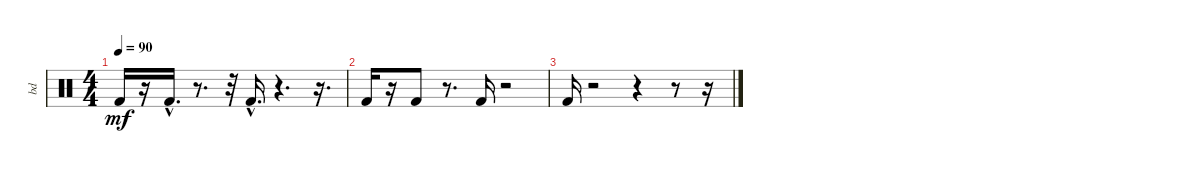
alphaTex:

\track ("bd" "bd") {instrument percussion}
\staff {score}
\articulation defaults
\ts (4 4)
\tempo 90
\clef neutral
\ks c "Kick (hit) 2".16{dy mf}
r.16 "Kick (hit) 2"{hac}.16{d} r.8{d} r.32 "Kick (hit) 2"{hac}.16{d} r.4{d} r.16{d} |
"Kick (hit) 2".16 r.16 "Kick (hit) 2".8 r.8{d} "Kick (hit) 2".16 r.2 |
"Kick (hit) 2".16 r.2 r.4 r.8 r.16
